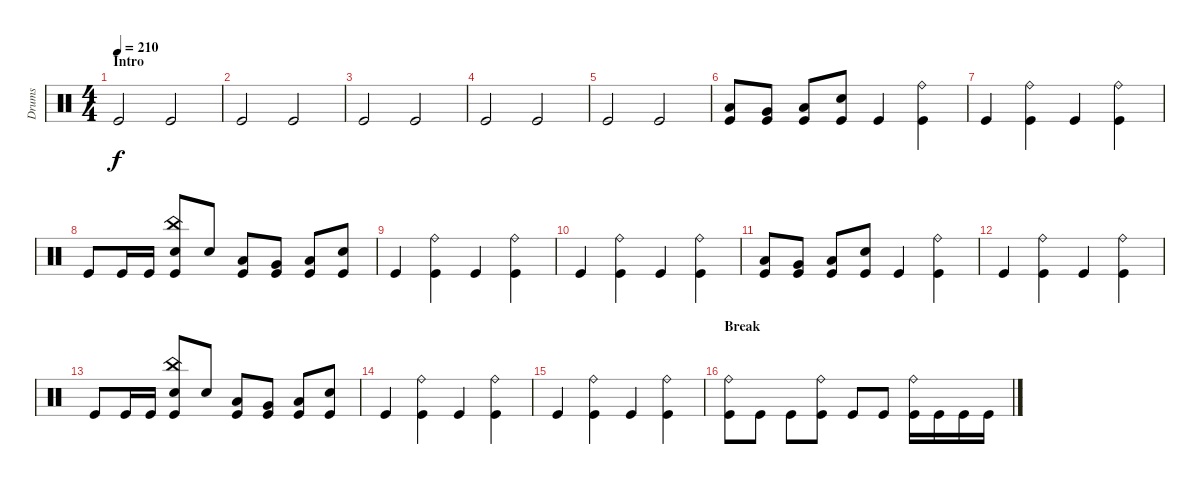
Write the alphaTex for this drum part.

\track ("Drums" "Drums") {instrument percussion}
\staff {score}
\articulation defaults
\ts (4 4)
\section ("" "Intro")
\tempo 210
\clef neutral
\ks c "Kick (hit)".2{dy f} "Kick (hit)".2
|
"Kick (hit)".2 "Kick (hit)".2 |
"Kick (hit)".2 "Kick (hit)".2 |
"Kick (hit)".2 "Kick (hit)".2 |
"Kick (hit)".2 "Kick (hit)".2 |
("Low Tom (hit)" "Kick (hit)").8 ("Very Low Tom (hit)" "Kick (hit)").8 ("Low Floor Tom (hit)" "Kick (hit)").8 ("Snare (hit) 2" "Kick (hit)").8 "Kick (hit)".4 ("Ride (bell)" "Kick (hit)").4 |
"Kick (hit)".4 ("Ride (bell)" "Kick (hit)").4 "Kick (hit)".4 ("Ride (bell)" "Kick (hit)").4 |
"Kick (hit)".8 "Kick (hit)".16 "Kick (hit)".16 ("China (hit)" "Electric Snare (hit)" "Kick (hit)").8 "Snare (hit) 2".8 ("Low Tom (hit)" "Kick (hit)").8 ("Very Low Tom (hit)" "Kick (hit)").8 ("Low Floor Tom (hit)" "Kick (hit)").8 ("Snare (hit) 2" "Kick (hit)").8 |
"Kick (hit)".4 ("Ride (bell)" "Kick (hit)").4 "Kick (hit)".4 ("Ride (bell)" "Kick (hit)").4 |
"Kick (hit)".4 ("Ride (bell)" "Kick (hit)").4 "Kick (hit)".4 ("Ride (bell)" "Kick (hit)").4 |
("Low Tom (hit)" "Kick (hit)").8 ("Very Low Tom (hit)" "Kick (hit)").8 ("Low Floor Tom (hit)" "Kick (hit)").8 ("Snare (hit) 2" "Kick (hit)").8 "Kick (hit)".4 ("Ride (bell)" "Kick (hit)").4 |
"Kick (hit)".4 ("Ride (bell)" "Kick (hit)").4 "Kick (hit)".4 ("Ride (bell)" "Kick (hit)").4 |
"Kick (hit)".8 "Kick (hit)".16 "Kick (hit)".16 ("China (hit)" "Electric Snare (hit)" "Kick (hit)").8 "Snare (hit) 2".8 ("Low Tom (hit)" "Kick (hit)").8 ("Very Low Tom (hit)" "Kick (hit)").8 ("Low Floor Tom (hit)" "Kick (hit)").8 ("Snare (hit) 2" "Kick (hit)").8 |
"Kick (hit)".4 ("Ride (bell)" "Kick (hit)").4 "Kick (hit)".4 ("Ride (bell)" "Kick (hit)").4 |
"Kick (hit)".4 ("Ride (bell)" "Kick (hit)").4 "Kick (hit)".4 ("Ride (bell)" "Kick (hit)").4 |
\section ("" "Break")
("Ride (bell)" "Kick (hit)").8 "Kick (hit)".8 "Kick (hit)".8 ("Ride (bell)" "Kick (hit)").8 "Kick (hit)".8 "Kick (hit)".8 ("Ride (bell)" "Kick (hit)").16 "Kick (hit)".16 "Kick (hit)".16 "Kick (hit)".16
